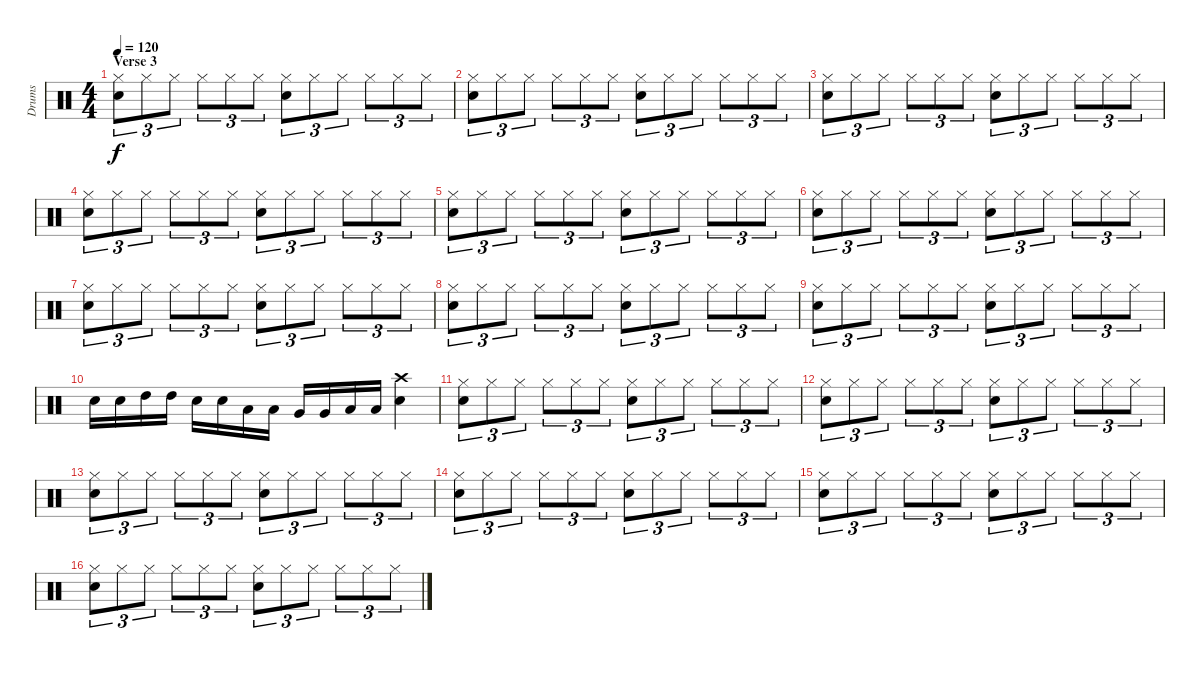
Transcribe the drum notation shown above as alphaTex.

\track ("Drums" "Drums") {instrument percussion}
\staff {score}
\articulation defaults
\ts (4 4)
\section ("" "Verse 3")
\tempo 120
\clef neutral
\ks c
("Hi-Hat (closed)" "Electric Snare (hit)").8{tu (3 2) dy f} "Hi-Hat (closed)".8{tu (3 2)} "Hi-Hat (closed)".8{tu (3 2)} "Hi-Hat (closed)".8{tu (3 2)} "Hi-Hat (closed)".8{tu (3 2)} "Hi-Hat (closed)".8{tu (3 2)} ("Hi-Hat (closed)" "Electric Snare (hit)").8{tu (3 2)} "Hi-Hat (closed)".8{tu (3 2)} "Hi-Hat (closed)".8{tu (3 2)} "Hi-Hat (closed)".8{tu (3 2)} "Hi-Hat (closed)".8{tu (3 2)} "Hi-Hat (closed)".8{tu (3 2)} |
("Hi-Hat (closed)" "Electric Snare (hit)").8{tu (3 2)} "Hi-Hat (closed)".8{tu (3 2)} "Hi-Hat (closed)".8{tu (3 2)} "Hi-Hat (closed)".8{tu (3 2)} "Hi-Hat (closed)".8{tu (3 2)} "Hi-Hat (closed)".8{tu (3 2)} ("Hi-Hat (closed)" "Electric Snare (hit)").8{tu (3 2)} "Hi-Hat (closed)".8{tu (3 2)} "Hi-Hat (closed)".8{tu (3 2)} "Hi-Hat (closed)".8{tu (3 2)} "Hi-Hat (closed)".8{tu (3 2)} "Hi-Hat (closed)".8{tu (3 2)} |
("Hi-Hat (closed)" "Electric Snare (hit)").8{tu (3 2)} "Hi-Hat (closed)".8{tu (3 2)} "Hi-Hat (closed)".8{tu (3 2)} "Hi-Hat (closed)".8{tu (3 2)} "Hi-Hat (closed)".8{tu (3 2)} "Hi-Hat (closed)".8{tu (3 2)} ("Hi-Hat (closed)" "Electric Snare (hit)").8{tu (3 2)} "Hi-Hat (closed)".8{tu (3 2)} "Hi-Hat (closed)".8{tu (3 2)} "Hi-Hat (closed)".8{tu (3 2)} "Hi-Hat (closed)".8{tu (3 2)} "Hi-Hat (closed)".8{tu (3 2)} |
("Hi-Hat (closed)" "Electric Snare (hit)").8{tu (3 2)} "Hi-Hat (closed)".8{tu (3 2)} "Hi-Hat (closed)".8{tu (3 2)} "Hi-Hat (closed)".8{tu (3 2)} "Hi-Hat (closed)".8{tu (3 2)} "Hi-Hat (closed)".8{tu (3 2)} ("Hi-Hat (closed)" "Electric Snare (hit)").8{tu (3 2)} "Hi-Hat (closed)".8{tu (3 2)} "Hi-Hat (closed)".8{tu (3 2)} "Hi-Hat (closed)".8{tu (3 2)} "Hi-Hat (closed)".8{tu (3 2)} "Hi-Hat (closed)".8{tu (3 2)} |
("Hi-Hat (closed)" "Electric Snare (hit)").8{tu (3 2)} "Hi-Hat (closed)".8{tu (3 2)} "Hi-Hat (closed)".8{tu (3 2)} "Hi-Hat (closed)".8{tu (3 2)} "Hi-Hat (closed)".8{tu (3 2)} "Hi-Hat (closed)".8{tu (3 2)} ("Hi-Hat (closed)" "Electric Snare (hit)").8{tu (3 2)} "Hi-Hat (closed)".8{tu (3 2)} "Hi-Hat (closed)".8{tu (3 2)} "Hi-Hat (closed)".8{tu (3 2)} "Hi-Hat (closed)".8{tu (3 2)} "Hi-Hat (closed)".8{tu (3 2)} |
("Hi-Hat (closed)" "Electric Snare (hit)").8{tu (3 2)} "Hi-Hat (closed)".8{tu (3 2)} "Hi-Hat (closed)".8{tu (3 2)} "Hi-Hat (closed)".8{tu (3 2)} "Hi-Hat (closed)".8{tu (3 2)} "Hi-Hat (closed)".8{tu (3 2)} ("Hi-Hat (closed)" "Electric Snare (hit)").8{tu (3 2)} "Hi-Hat (closed)".8{tu (3 2)} "Hi-Hat (closed)".8{tu (3 2)} "Hi-Hat (closed)".8{tu (3 2)} "Hi-Hat (closed)".8{tu (3 2)} "Hi-Hat (closed)".8{tu (3 2)} |
("Hi-Hat (closed)" "Electric Snare (hit)").8{tu (3 2)} "Hi-Hat (closed)".8{tu (3 2)} "Hi-Hat (closed)".8{tu (3 2)} "Hi-Hat (closed)".8{tu (3 2)} "Hi-Hat (closed)".8{tu (3 2)} "Hi-Hat (closed)".8{tu (3 2)} ("Hi-Hat (closed)" "Electric Snare (hit)").8{tu (3 2)} "Hi-Hat (closed)".8{tu (3 2)} "Hi-Hat (closed)".8{tu (3 2)} "Hi-Hat (closed)".8{tu (3 2)} "Hi-Hat (closed)".8{tu (3 2)} "Hi-Hat (closed)".8{tu (3 2)} |
("Hi-Hat (closed)" "Electric Snare (hit)").8{tu (3 2)} "Hi-Hat (closed)".8{tu (3 2)} "Hi-Hat (closed)".8{tu (3 2)} "Hi-Hat (closed)".8{tu (3 2)} "Hi-Hat (closed)".8{tu (3 2)} "Hi-Hat (closed)".8{tu (3 2)} ("Hi-Hat (closed)" "Electric Snare (hit)").8{tu (3 2)} "Hi-Hat (closed)".8{tu (3 2)} "Hi-Hat (closed)".8{tu (3 2)} "Hi-Hat (closed)".8{tu (3 2)} "Hi-Hat (closed)".8{tu (3 2)} "Hi-Hat (closed)".8{tu (3 2)} |
("Hi-Hat (closed)" "Electric Snare (hit)").8{tu (3 2)} "Hi-Hat (closed)".8{tu (3 2)} "Hi-Hat (closed)".8{tu (3 2)} "Hi-Hat (closed)".8{tu (3 2)} "Hi-Hat (closed)".8{tu (3 2)} "Hi-Hat (closed)".8{tu (3 2)} ("Hi-Hat (closed)" "Electric Snare (hit)").8{tu (3 2)} "Hi-Hat (closed)".8{tu (3 2)} "Hi-Hat (closed)".8{tu (3 2)} "Hi-Hat (closed)".8{tu (3 2)} "Hi-Hat (closed)".8{tu (3 2)} "Hi-Hat (closed)".8{tu (3 2)} |
"Electric Snare (hit)".16 "Electric Snare (hit)".16 "High Tom (hit)".16 "High Tom (hit)".16 "Electric Snare (hit)".16 "Electric Snare (hit)".16 "Low Tom (hit)".16 "Low Tom (hit)".16 "Very Low Tom (hit)".16 "Very Low Tom (hit)".16 "Low Floor Tom (hit)".16 "Low Floor Tom (hit)".16 ("Crash high (hit)" "Electric Snare (hit)").4 |
("Hi-Hat (closed)" "Electric Snare (hit)").8{tu (3 2)} "Hi-Hat (closed)".8{tu (3 2)} "Hi-Hat (closed)".8{tu (3 2)} "Hi-Hat (closed)".8{tu (3 2)} "Hi-Hat (closed)".8{tu (3 2)} "Hi-Hat (closed)".8{tu (3 2)} ("Hi-Hat (closed)" "Electric Snare (hit)").8{tu (3 2)} "Hi-Hat (closed)".8{tu (3 2)} "Hi-Hat (closed)".8{tu (3 2)} "Hi-Hat (closed)".8{tu (3 2)} "Hi-Hat (closed)".8{tu (3 2)} "Hi-Hat (closed)".8{tu (3 2)} |
("Hi-Hat (closed)" "Electric Snare (hit)").8{tu (3 2)} "Hi-Hat (closed)".8{tu (3 2)} "Hi-Hat (closed)".8{tu (3 2)} "Hi-Hat (closed)".8{tu (3 2)} "Hi-Hat (closed)".8{tu (3 2)} "Hi-Hat (closed)".8{tu (3 2)} ("Hi-Hat (closed)" "Electric Snare (hit)").8{tu (3 2)} "Hi-Hat (closed)".8{tu (3 2)} "Hi-Hat (closed)".8{tu (3 2)} "Hi-Hat (closed)".8{tu (3 2)} "Hi-Hat (closed)".8{tu (3 2)} "Hi-Hat (closed)".8{tu (3 2)} |
("Hi-Hat (closed)" "Electric Snare (hit)").8{tu (3 2)} "Hi-Hat (closed)".8{tu (3 2)} "Hi-Hat (closed)".8{tu (3 2)} "Hi-Hat (closed)".8{tu (3 2)} "Hi-Hat (closed)".8{tu (3 2)} "Hi-Hat (closed)".8{tu (3 2)} ("Hi-Hat (closed)" "Electric Snare (hit)").8{tu (3 2)} "Hi-Hat (closed)".8{tu (3 2)} "Hi-Hat (closed)".8{tu (3 2)} "Hi-Hat (closed)".8{tu (3 2)} "Hi-Hat (closed)".8{tu (3 2)} "Hi-Hat (closed)".8{tu (3 2)} |
("Hi-Hat (closed)" "Electric Snare (hit)").8{tu (3 2)} "Hi-Hat (closed)".8{tu (3 2)} "Hi-Hat (closed)".8{tu (3 2)} "Hi-Hat (closed)".8{tu (3 2)} "Hi-Hat (closed)".8{tu (3 2)} "Hi-Hat (closed)".8{tu (3 2)} ("Hi-Hat (closed)" "Electric Snare (hit)").8{tu (3 2)} "Hi-Hat (closed)".8{tu (3 2)} "Hi-Hat (closed)".8{tu (3 2)} "Hi-Hat (closed)".8{tu (3 2)} "Hi-Hat (closed)".8{tu (3 2)} "Hi-Hat (closed)".8{tu (3 2)} |
("Hi-Hat (closed)" "Electric Snare (hit)").8{tu (3 2)} "Hi-Hat (closed)".8{tu (3 2)} "Hi-Hat (closed)".8{tu (3 2)} "Hi-Hat (closed)".8{tu (3 2)} "Hi-Hat (closed)".8{tu (3 2)} "Hi-Hat (closed)".8{tu (3 2)} ("Hi-Hat (closed)" "Electric Snare (hit)").8{tu (3 2)} "Hi-Hat (closed)".8{tu (3 2)} "Hi-Hat (closed)".8{tu (3 2)} "Hi-Hat (closed)".8{tu (3 2)} "Hi-Hat (closed)".8{tu (3 2)} "Hi-Hat (closed)".8{tu (3 2)} |
("Hi-Hat (closed)" "Electric Snare (hit)").8{tu (3 2)} "Hi-Hat (closed)".8{tu (3 2)} "Hi-Hat (closed)".8{tu (3 2)} "Hi-Hat (closed)".8{tu (3 2)} "Hi-Hat (closed)".8{tu (3 2)} "Hi-Hat (closed)".8{tu (3 2)} ("Hi-Hat (closed)" "Electric Snare (hit)").8{tu (3 2)} "Hi-Hat (closed)".8{tu (3 2)} "Hi-Hat (closed)".8{tu (3 2)} "Hi-Hat (closed)".8{tu (3 2)} "Hi-Hat (closed)".8{tu (3 2)} "Hi-Hat (closed)".8{tu (3 2)}
